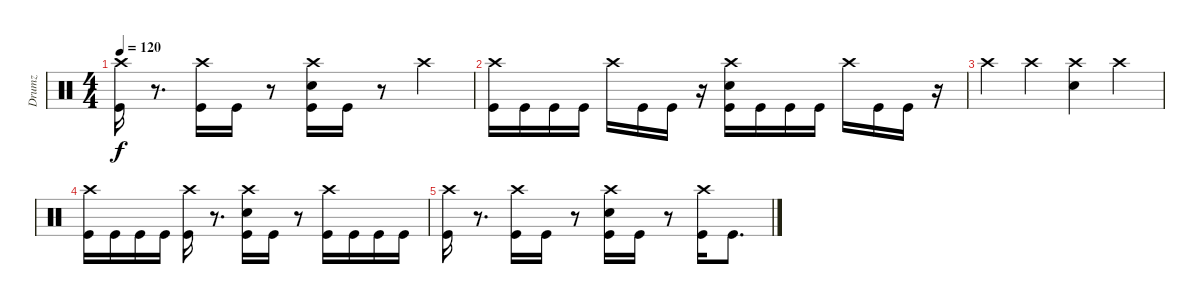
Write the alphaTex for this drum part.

\track ("Drumz" "Drumz") {instrument percussion}
\staff {score}
\articulation defaults
\ts (4 4)
\tempo 120
\clef neutral
\ks c
("Crash high (hit)" "Kick (hit)").16{dy f} r.8{d} ("Crash high (hit)" "Kick (hit)").16 "Kick (hit)".16 r.8 ("Crash high (hit)" "Electric Snare (hit)" "Kick (hit)").16 "Kick (hit)".16 r.8 "Crash high (hit)".4 |
("Crash high (hit)" "Kick (hit)").16 "Kick (hit)".16 "Kick (hit)".16 "Kick (hit)".16 "Crash high (hit)".16 "Kick (hit)".16 "Kick (hit)".16 r.16 ("Crash high (hit)" "Electric Snare (hit)" "Kick (hit)").16 "Kick (hit)".16 "Kick (hit)".16 "Kick (hit)".16 "Crash high (hit)".16 "Kick (hit)".16 "Kick (hit)".16 r.16 |
"Crash high (hit)".4 "Crash high (hit)".4 ("Crash high (hit)" "Electric Snare (hit)").4 "Crash high (hit)".4 |
("Crash high (hit)" "Kick (hit)").16 "Kick (hit)".16 "Kick (hit)".16 "Kick (hit)".16 ("Crash high (hit)" "Kick (hit)").16 r.8{d} ("Crash high (hit)" "Electric Snare (hit)" "Kick (hit)").16 "Kick (hit)".16 r.8 ("Crash high (hit)" "Kick (hit)").16 "Kick (hit)".16 "Kick (hit)".16 "Kick (hit)".16 |
("Crash high (hit)" "Kick (hit)").16 r.8{d} ("Crash high (hit)" "Kick (hit)").16 "Kick (hit)".16 r.8 ("Crash high (hit)" "Electric Snare (hit)" "Kick (hit)").16 "Kick (hit)".16 r.8 ("Crash high (hit)" "Kick (hit)").16 "Kick (hit)".8{d}
